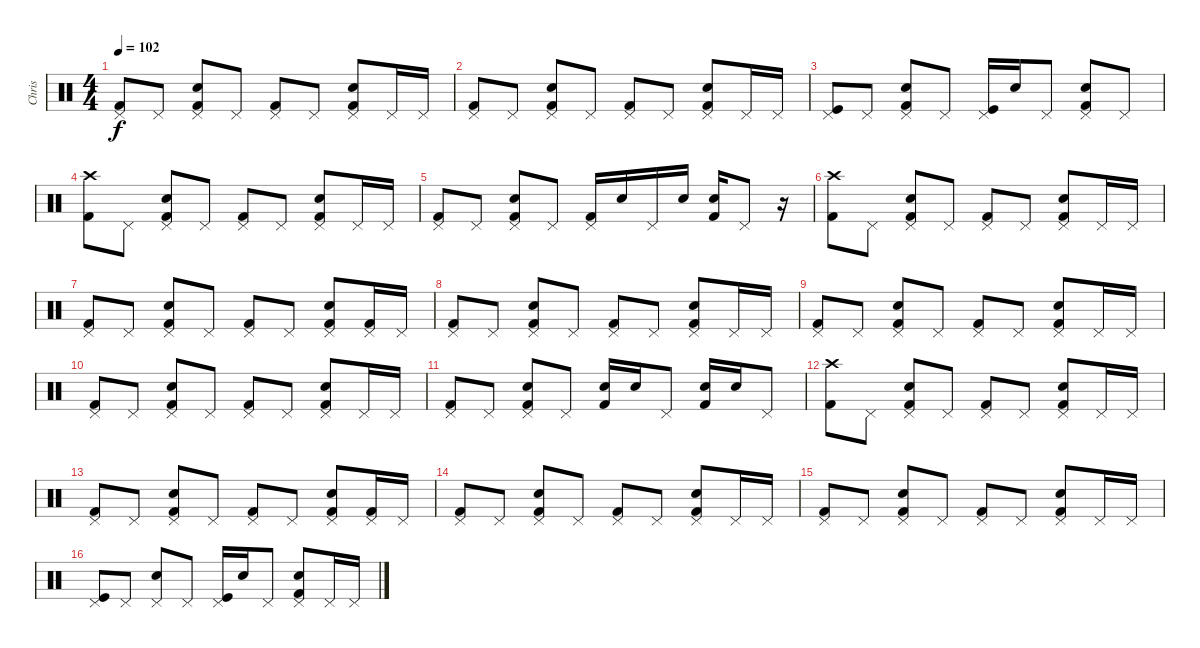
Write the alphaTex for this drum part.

\track ("Chris" "Chris") {instrument percussion}
\staff {score}
\articulation defaults
\ts (4 4)
\tempo 102
\clef neutral
\ks c
("Pedal Hi-Hat (hit)" "Kick (hit) 2").8{dy f} "Pedal Hi-Hat (hit)".8 ("Pedal Hi-Hat (hit)" "Snare (hit) 2" "Kick (hit) 2").8 "Pedal Hi-Hat (hit)".8 ("Pedal Hi-Hat (hit)" "Kick (hit) 2").8 "Pedal Hi-Hat (hit)".8 ("Pedal Hi-Hat (hit)" "Snare (hit) 2" "Kick (hit) 2").8 "Pedal Hi-Hat (hit)".16 "Pedal Hi-Hat (hit)".16 |
("Pedal Hi-Hat (hit)" "Kick (hit) 2").8 "Pedal Hi-Hat (hit)".8 ("Pedal Hi-Hat (hit)" "Snare (hit) 2" "Kick (hit) 2").8 "Pedal Hi-Hat (hit)".8 ("Pedal Hi-Hat (hit)" "Kick (hit) 2").8 "Pedal Hi-Hat (hit)".8 ("Pedal Hi-Hat (hit)" "Snare (hit) 2" "Kick (hit) 2").8 "Pedal Hi-Hat (hit)".16 "Pedal Hi-Hat (hit)".16 |
("Pedal Hi-Hat (hit)" "Kick (hit)").8 "Pedal Hi-Hat (hit)".8 ("Pedal Hi-Hat (hit)" "Snare (hit) 2" "Kick (hit) 2").8 "Pedal Hi-Hat (hit)".8 ("Pedal Hi-Hat (hit)" "Kick (hit)").16 "Snare (hit) 2".16 "Pedal Hi-Hat (hit)".8 ("Pedal Hi-Hat (hit)" "Snare (hit) 2" "Kick (hit) 2").8 "Pedal Hi-Hat (hit)".8 |
("Crash high (hit)" "Kick (hit) 2").8 "Pedal Hi-Hat (hit)".8 ("Pedal Hi-Hat (hit)" "Snare (hit) 2" "Kick (hit) 2").8 "Pedal Hi-Hat (hit)".8 ("Pedal Hi-Hat (hit)" "Kick (hit) 2").8 "Pedal Hi-Hat (hit)".8 ("Pedal Hi-Hat (hit)" "Snare (hit) 2" "Kick (hit) 2").8 "Pedal Hi-Hat (hit)".16 "Pedal Hi-Hat (hit)".16 |
("Pedal Hi-Hat (hit)" "Kick (hit) 2").8 "Pedal Hi-Hat (hit)".8 ("Pedal Hi-Hat (hit)" "Snare (hit) 2" "Kick (hit) 2").8 "Pedal Hi-Hat (hit)".8 ("Pedal Hi-Hat (hit)" "Kick (hit) 2").16 "Snare (hit) 2".16 "Pedal Hi-Hat (hit)".16 "Snare (hit) 2".16 ("Snare (hit) 2" "Kick (hit) 2").16 "Pedal Hi-Hat (hit)".8 r.16 |
("Crash high (hit)" "Kick (hit) 2").8 "Pedal Hi-Hat (hit)".8 ("Pedal Hi-Hat (hit)" "Snare (hit) 2" "Kick (hit) 2").8 "Pedal Hi-Hat (hit)".8 ("Pedal Hi-Hat (hit)" "Kick (hit) 2").8 "Pedal Hi-Hat (hit)".8 ("Pedal Hi-Hat (hit)" "Snare (hit) 2" "Kick (hit) 2").8 "Pedal Hi-Hat (hit)".16 "Pedal Hi-Hat (hit)".16 |
("Pedal Hi-Hat (hit)" "Kick (hit) 2").8 "Pedal Hi-Hat (hit)".8 ("Pedal Hi-Hat (hit)" "Snare (hit) 2" "Kick (hit) 2").8 "Pedal Hi-Hat (hit)".8 ("Pedal Hi-Hat (hit)" "Kick (hit) 2").8 "Pedal Hi-Hat (hit)".8 ("Pedal Hi-Hat (hit)" "Snare (hit) 2" "Kick (hit) 2").8 ("Pedal Hi-Hat (hit)" "Kick (hit) 2").16 "Pedal Hi-Hat (hit)".16 |
("Pedal Hi-Hat (hit)" "Kick (hit) 2").8 "Pedal Hi-Hat (hit)".8 ("Pedal Hi-Hat (hit)" "Snare (hit) 2" "Kick (hit) 2").8 "Pedal Hi-Hat (hit)".8 ("Pedal Hi-Hat (hit)" "Kick (hit) 2").8 "Pedal Hi-Hat (hit)".8 ("Pedal Hi-Hat (hit)" "Snare (hit) 2" "Kick (hit) 2").8 "Pedal Hi-Hat (hit)".16 "Pedal Hi-Hat (hit)".16 |
("Pedal Hi-Hat (hit)" "Kick (hit) 2").8 "Pedal Hi-Hat (hit)".8 ("Pedal Hi-Hat (hit)" "Snare (hit) 2" "Kick (hit) 2").8 "Pedal Hi-Hat (hit)".8 ("Pedal Hi-Hat (hit)" "Kick (hit) 2").8 "Pedal Hi-Hat (hit)".8 ("Pedal Hi-Hat (hit)" "Snare (hit) 2" "Kick (hit) 2").8 "Pedal Hi-Hat (hit)".16 "Pedal Hi-Hat (hit)".16 |
("Pedal Hi-Hat (hit)" "Kick (hit) 2").8 "Pedal Hi-Hat (hit)".8 ("Pedal Hi-Hat (hit)" "Snare (hit) 2" "Kick (hit) 2").8 "Pedal Hi-Hat (hit)".8 ("Pedal Hi-Hat (hit)" "Kick (hit) 2").8 "Pedal Hi-Hat (hit)".8 ("Pedal Hi-Hat (hit)" "Snare (hit) 2" "Kick (hit) 2").8 "Pedal Hi-Hat (hit)".16 "Pedal Hi-Hat (hit)".16 |
("Pedal Hi-Hat (hit)" "Kick (hit) 2").8 "Pedal Hi-Hat (hit)".8 ("Pedal Hi-Hat (hit)" "Snare (hit) 2" "Kick (hit) 2").8 "Pedal Hi-Hat (hit)".8 ("Snare (hit) 2" "Kick (hit) 2").16 "Snare (hit) 2".16 "Pedal Hi-Hat (hit)".8 ("Snare (hit) 2" "Kick (hit) 2").16 "Snare (hit) 2".16 "Pedal Hi-Hat (hit)".8 |
("Crash high (hit)" "Kick (hit) 2").8 "Pedal Hi-Hat (hit)".8 ("Pedal Hi-Hat (hit)" "Snare (hit) 2" "Kick (hit) 2").8 "Pedal Hi-Hat (hit)".8 ("Pedal Hi-Hat (hit)" "Kick (hit) 2").8 "Pedal Hi-Hat (hit)".8 ("Pedal Hi-Hat (hit)" "Snare (hit) 2" "Kick (hit) 2").8 "Pedal Hi-Hat (hit)".16 "Pedal Hi-Hat (hit)".16 |
("Pedal Hi-Hat (hit)" "Kick (hit) 2").8 "Pedal Hi-Hat (hit)".8 ("Pedal Hi-Hat (hit)" "Snare (hit) 2" "Kick (hit) 2").8 "Pedal Hi-Hat (hit)".8 ("Pedal Hi-Hat (hit)" "Kick (hit) 2").8 "Pedal Hi-Hat (hit)".8 ("Pedal Hi-Hat (hit)" "Snare (hit) 2" "Kick (hit) 2").8 ("Pedal Hi-Hat (hit)" "Kick (hit) 2").16 "Pedal Hi-Hat (hit)".16 |
("Pedal Hi-Hat (hit)" "Kick (hit) 2").8 "Pedal Hi-Hat (hit)".8 ("Pedal Hi-Hat (hit)" "Snare (hit) 2" "Kick (hit) 2").8 "Pedal Hi-Hat (hit)".8 ("Pedal Hi-Hat (hit)" "Kick (hit) 2").8 "Pedal Hi-Hat (hit)".8 ("Pedal Hi-Hat (hit)" "Snare (hit) 2" "Kick (hit) 2").8 "Pedal Hi-Hat (hit)".16 "Pedal Hi-Hat (hit)".16 |
("Pedal Hi-Hat (hit)" "Kick (hit) 2").8 "Pedal Hi-Hat (hit)".8 ("Pedal Hi-Hat (hit)" "Snare (hit) 2" "Kick (hit) 2").8 "Pedal Hi-Hat (hit)".8 ("Pedal Hi-Hat (hit)" "Kick (hit) 2").8 "Pedal Hi-Hat (hit)".8 ("Pedal Hi-Hat (hit)" "Snare (hit) 2" "Kick (hit) 2").8 "Pedal Hi-Hat (hit)".16 "Pedal Hi-Hat (hit)".16 |
("Pedal Hi-Hat (hit)" "Kick (hit)").8 "Pedal Hi-Hat (hit)".8 ("Pedal Hi-Hat (hit)" "Snare (hit) 2").8 "Pedal Hi-Hat (hit)".8 ("Pedal Hi-Hat (hit)" "Kick (hit)").16 "Snare (hit) 2".16 "Pedal Hi-Hat (hit)".8 ("Pedal Hi-Hat (hit)" "Snare (hit) 2" "Kick (hit) 2").8 "Pedal Hi-Hat (hit)".16 "Pedal Hi-Hat (hit)".16
